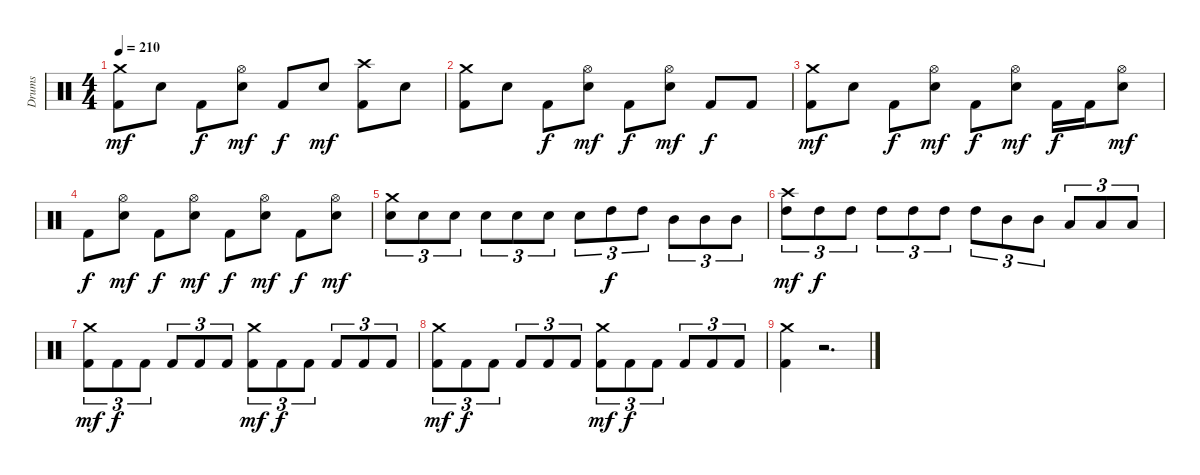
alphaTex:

\track ("Drums" "Drums") {instrument percussion}
\staff {score}
\articulation defaults
\ts (4 4)
\tempo 210
\clef neutral
\ks c
("Crash medium (hit)" "Kick (hit) 2").8{dy mf} "Electric Snare (hit)".8 "Kick (hit) 2".8{dy f} ("Hi-Hat (open)" "Electric Snare (hit)").8{dy mf} "Kick (hit) 2".8{dy f} "Electric Snare (hit)".8{dy mf} ("Crash high (hit)" "Kick (hit) 2").8 "Electric Snare (hit)".8 |
("Crash medium (hit)" "Kick (hit) 2").8 "Electric Snare (hit)".8 "Kick (hit) 2".8{dy f} ("Hi-Hat (open)" "Electric Snare (hit)").8{dy mf} "Kick (hit) 2".8{dy f} ("Hi-Hat (open)" "Electric Snare (hit)").8{dy mf} "Kick (hit) 2".8{dy f} "Kick (hit) 2".8 |
("Crash medium (hit)" "Kick (hit) 2").8{dy mf} "Electric Snare (hit)".8 "Kick (hit) 2".8{dy f} ("Hi-Hat (open)" "Electric Snare (hit)").8{dy mf} "Kick (hit) 2".8{dy f} ("Hi-Hat (open)" "Electric Snare (hit)").8{dy mf} "Kick (hit) 2".16{dy f} "Kick (hit) 2".16 ("Hi-Hat (open)" "Electric Snare (hit)").8{dy mf} |
"Kick (hit) 2".8{dy f} ("Hi-Hat (open)" "Electric Snare (hit)").8{dy mf} "Kick (hit) 2".8{dy f} ("Hi-Hat (open)" "Electric Snare (hit)").8{dy mf} "Kick (hit) 2".8{dy f} ("Hi-Hat (open)" "Electric Snare (hit)").8{dy mf} "Kick (hit) 2".8{dy f} ("Hi-Hat (open)" "Electric Snare (hit)").8{dy mf} |
("Crash medium (hit)" "Electric Snare (hit)").8{tu (3 2)} "Electric Snare (hit)".8{tu (3 2)} "Electric Snare (hit)".8{tu (3 2)} "Electric Snare (hit)".8{tu (3 2)} "Electric Snare (hit)".8{tu (3 2)} "Electric Snare (hit)".8{tu (3 2)} "Electric Snare (hit)".8{tu (3 2)} "High Tom (hit)".8{tu (3 2) dy f} "High Tom (hit)".8{tu (3 2)} "Mid Tom (hit)".8{tu (3 2)} "Mid Tom (hit)".8{tu (3 2)} "Mid Tom (hit)".8{tu (3 2)} |
("Crash high (hit)" "High Tom (hit)").8{tu (3 2) dy mf} "High Tom (hit)".8{tu (3 2) dy f} "High Tom (hit)".8{tu (3 2)} "High Tom (hit)".8{tu (3 2)} "High Tom (hit)".8{tu (3 2)} "High Tom (hit)".8{tu (3 2)} "High Tom (hit)".8{tu (3 2)} "Mid Tom (hit)".8{tu (3 2)} "Mid Tom (hit)".8{tu (3 2)} "Low Tom (hit)".8{tu (3 2)} "Low Tom (hit)".8{tu (3 2)} "Low Tom (hit)".8{tu (3 2)} |
("Crash medium (hit)" "Kick (hit) 2").8{tu (3 2) dy mf} "Kick (hit) 2".8{tu (3 2) dy f} "Kick (hit) 2".8{tu (3 2)} "Kick (hit) 2".8{tu (3 2)} "Kick (hit) 2".8{tu (3 2)} "Kick (hit) 2".8{tu (3 2)} ("Crash medium (hit)" "Kick (hit) 2").8{tu (3 2) dy mf} "Kick (hit) 2".8{tu (3 2) dy f} "Kick (hit) 2".8{tu (3 2)} "Kick (hit) 2".8{tu (3 2)} "Kick (hit) 2".8{tu (3 2)} "Kick (hit) 2".8{tu (3 2)} |
("Crash medium (hit)" "Kick (hit) 2").8{tu (3 2) dy mf} "Kick (hit) 2".8{tu (3 2) dy f} "Kick (hit) 2".8{tu (3 2)} "Kick (hit) 2".8{tu (3 2)} "Kick (hit) 2".8{tu (3 2)} "Kick (hit) 2".8{tu (3 2)} ("Crash medium (hit)" "Kick (hit) 2").8{tu (3 2) dy mf} "Kick (hit) 2".8{tu (3 2) dy f} "Kick (hit) 2".8{tu (3 2)} "Kick (hit) 2".8{tu (3 2)} "Kick (hit) 2".8{tu (3 2)} "Kick (hit) 2".8{tu (3 2)} |
("Crash medium (hit)" "Kick (hit) 2").4 r.2{d}
